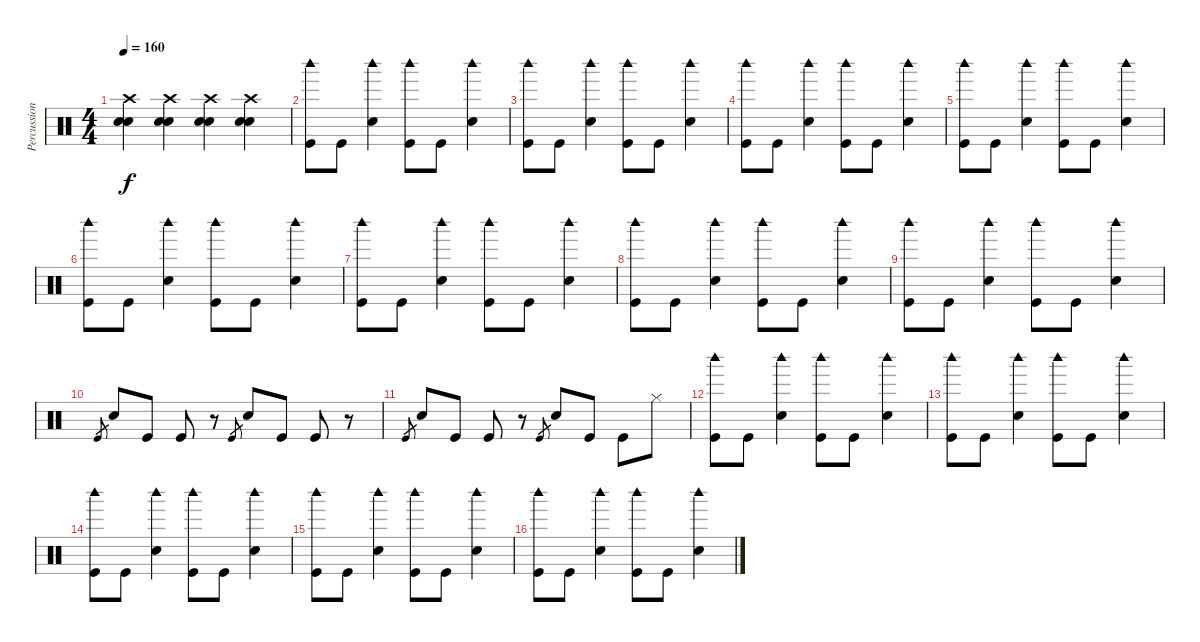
\track ("Percussion" "Percussion") {instrument percussion}
\staff {score}
\articulation defaults
\ts (4 4)
\tempo 160
\clef neutral
\ks c
("Crash high (hit)" "Snare (hit) 2" "Electric Snare (hit)").4{dy f} ("Crash high (hit)" "Snare (hit) 2" "Electric Snare (hit)").4 ("Crash high (hit)" "Snare (hit) 2" "Electric Snare (hit)").4 ("Crash high (hit)" "Snare (hit) 2" "Electric Snare (hit)").4 |
("Woodblock high (hit)" "Kick (hit)").8 "Kick (hit)".8 ("Woodblock high (hit)" "Snare (hit) 2").4 ("Woodblock high (hit)" "Kick (hit)").8 "Kick (hit)".8 ("Woodblock high (hit)" "Snare (hit) 2").4 |
("Woodblock high (hit)" "Kick (hit)").8 "Kick (hit)".8 ("Woodblock high (hit)" "Snare (hit) 2").4 ("Woodblock high (hit)" "Kick (hit)").8 "Kick (hit)".8 ("Woodblock high (hit)" "Snare (hit) 2").4 |
("Woodblock high (hit)" "Kick (hit)").8 "Kick (hit)".8 ("Woodblock high (hit)" "Snare (hit) 2").4 ("Woodblock high (hit)" "Kick (hit)").8 "Kick (hit)".8 ("Woodblock high (hit)" "Snare (hit) 2").4 |
("Woodblock high (hit)" "Kick (hit)").8 "Kick (hit)".8 ("Woodblock high (hit)" "Snare (hit) 2").4 ("Woodblock high (hit)" "Kick (hit)").8 "Kick (hit)".8 ("Woodblock high (hit)" "Snare (hit) 2").4 |
("Woodblock high (hit)" "Kick (hit)").8 "Kick (hit)".8 ("Woodblock high (hit)" "Snare (hit) 2").4 ("Woodblock high (hit)" "Kick (hit)").8 "Kick (hit)".8 ("Woodblock high (hit)" "Snare (hit) 2").4 |
("Woodblock high (hit)" "Kick (hit)").8 "Kick (hit)".8 ("Woodblock high (hit)" "Snare (hit) 2").4 ("Woodblock high (hit)" "Kick (hit)").8 "Kick (hit)".8 ("Woodblock high (hit)" "Snare (hit) 2").4 |
("Woodblock high (hit)" "Kick (hit)").8 "Kick (hit)".8 ("Woodblock high (hit)" "Snare (hit) 2").4 ("Woodblock high (hit)" "Kick (hit)").8 "Kick (hit)".8 ("Woodblock high (hit)" "Snare (hit) 2").4 |
("Woodblock high (hit)" "Kick (hit)").8 "Kick (hit)".8 ("Woodblock high (hit)" "Snare (hit) 2").4 ("Woodblock high (hit)" "Kick (hit)").8 "Kick (hit)".8 ("Woodblock high (hit)" "Snare (hit) 2").4 |
"Kick (hit)".8{gr} "Snare (hit) 2".8 "Kick (hit)".8 "Kick (hit)".8 r.8 "Kick (hit)".8{gr} "Snare (hit) 2".8 "Kick (hit)".8 "Kick (hit)".8 r.8 |
"Kick (hit)".8{gr} "Snare (hit) 2".8 "Kick (hit)".8 "Kick (hit)".8 r.8 "Kick (hit)".8{gr} "Snare (hit) 2".8 "Kick (hit)".8 "Kick (hit)".8 "Hi-Hat (closed)".8 |
("Woodblock high (hit)" "Kick (hit)").8 "Kick (hit)".8 ("Woodblock high (hit)" "Snare (hit) 2").4 ("Woodblock high (hit)" "Kick (hit)").8 "Kick (hit)".8 ("Woodblock high (hit)" "Snare (hit) 2").4 |
("Woodblock high (hit)" "Kick (hit)").8 "Kick (hit)".8 ("Woodblock high (hit)" "Snare (hit) 2").4 ("Woodblock high (hit)" "Kick (hit)").8 "Kick (hit)".8 ("Woodblock high (hit)" "Snare (hit) 2").4 |
("Woodblock high (hit)" "Kick (hit)").8 "Kick (hit)".8 ("Woodblock high (hit)" "Snare (hit) 2").4 ("Woodblock high (hit)" "Kick (hit)").8 "Kick (hit)".8 ("Woodblock high (hit)" "Snare (hit) 2").4 |
("Woodblock high (hit)" "Kick (hit)").8 "Kick (hit)".8 ("Woodblock high (hit)" "Snare (hit) 2").4 ("Woodblock high (hit)" "Kick (hit)").8 "Kick (hit)".8 ("Woodblock high (hit)" "Snare (hit) 2").4 |
("Woodblock high (hit)" "Kick (hit)").8 "Kick (hit)".8 ("Woodblock high (hit)" "Snare (hit) 2").4 ("Woodblock high (hit)" "Kick (hit)").8 "Kick (hit)".8 ("Woodblock high (hit)" "Snare (hit) 2").4
